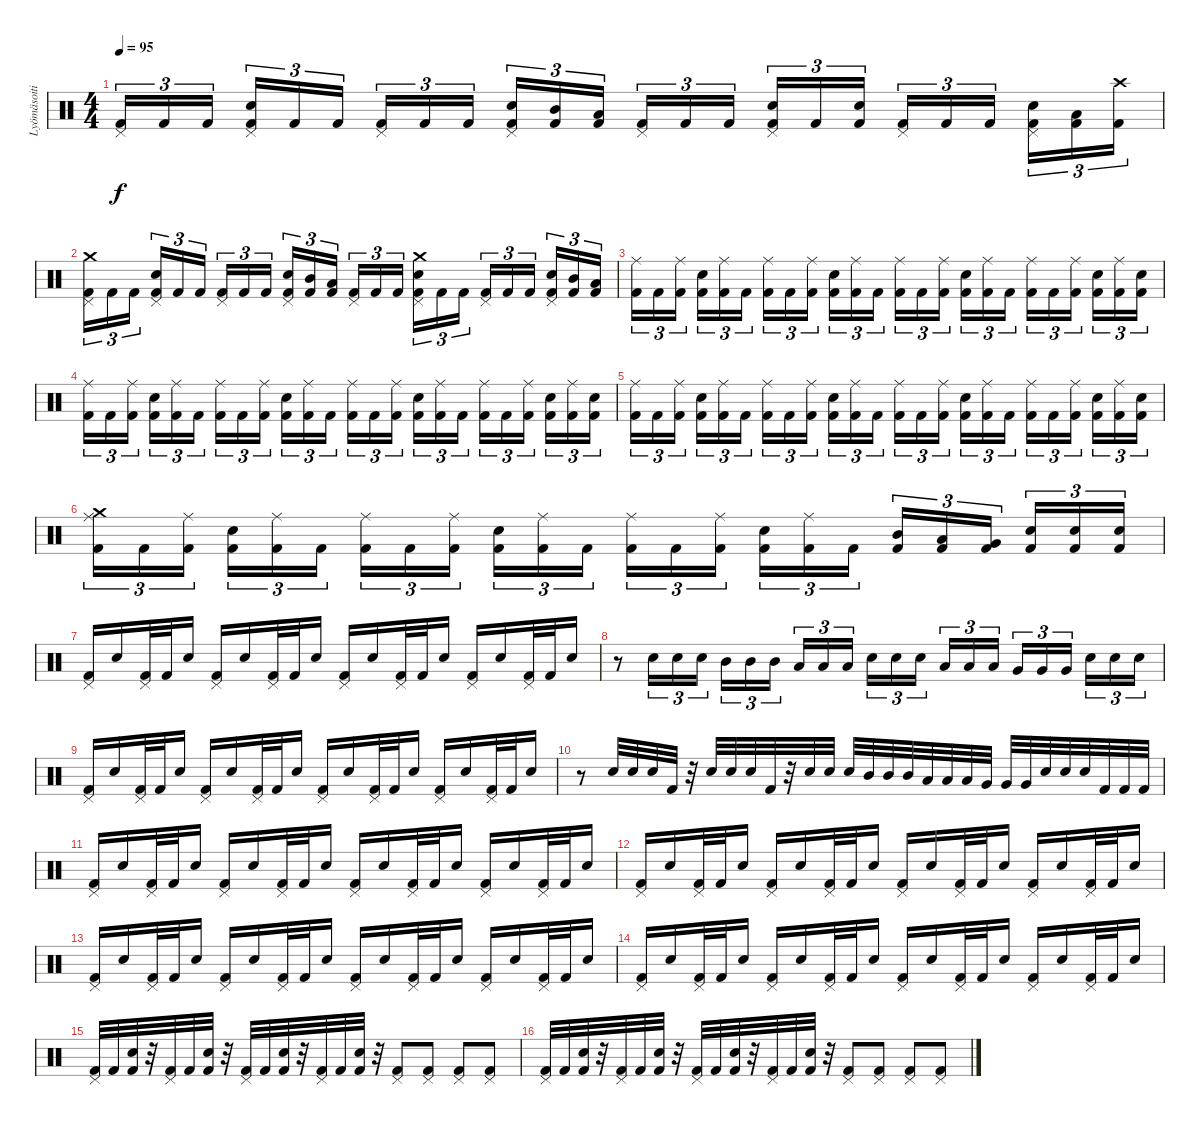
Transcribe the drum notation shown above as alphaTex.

\track ("Lyömäsoitin" "Lyömäsoiti") {instrument percussion}
\staff {score}
\articulation defaults
\ts (4 4)
\tempo 95
\clef neutral
\ks c
("Kick (hit) 2" "Pedal Hi-Hat (hit)").16{tu (3 2) dy f} "Kick (hit) 2".16{tu (3 2)} "Kick (hit) 2".16{tu (3 2)} ("Kick (hit) 2" "Electric Snare (hit)" "Pedal Hi-Hat (hit)").16{tu (3 2)} "Kick (hit) 2".16{tu (3 2)} "Kick (hit) 2".16{tu (3 2)} ("Kick (hit) 2" "Pedal Hi-Hat (hit)").16{tu (3 2)} "Kick (hit) 2".16{tu (3 2)} "Kick (hit) 2".16{tu (3 2)} ("Kick (hit) 2" "Electric Snare (hit)" "Pedal Hi-Hat (hit)").16{tu (3 2)} ("Kick (hit) 2" "Mid Tom (hit)").16{tu (3 2)} ("Kick (hit) 2" "Low Tom (hit)").16{tu (3 2)} ("Kick (hit) 2" "Pedal Hi-Hat (hit)").16{tu (3 2)} "Kick (hit) 2".16{tu (3 2)} "Kick (hit) 2".16{tu (3 2)} ("Kick (hit) 2" "Electric Snare (hit)" "Pedal Hi-Hat (hit)").16{tu (3 2)} "Kick (hit) 2".16{tu (3 2)} ("Kick (hit) 2" "Electric Snare (hit)").16{tu (3 2)} ("Kick (hit) 2" "Pedal Hi-Hat (hit)").16{tu (3 2)} "Kick (hit) 2".16{tu (3 2)} "Kick (hit) 2".16{tu (3 2)} ("Kick (hit) 2" "Electric Snare (hit)" "Pedal Hi-Hat (hit)").16{tu (3 2)} ("Kick (hit) 2" "Low Tom (hit)").16{tu (3 2)} ("Kick (hit) 2" "Crash high (hit)").16{tu (3 2)} |
("Kick (hit) 2" "Pedal Hi-Hat (hit)" "Crash medium (hit)").16{tu (3 2)} "Kick (hit) 2".16{tu (3 2)} "Kick (hit) 2".16{tu (3 2)} ("Kick (hit) 2" "Electric Snare (hit)" "Pedal Hi-Hat (hit)").16{tu (3 2)} "Kick (hit) 2".16{tu (3 2)} "Kick (hit) 2".16{tu (3 2)} ("Kick (hit) 2" "Pedal Hi-Hat (hit)").16{tu (3 2)} "Kick (hit) 2".16{tu (3 2)} "Kick (hit) 2".16{tu (3 2)} ("Kick (hit) 2" "Electric Snare (hit)" "Pedal Hi-Hat (hit)").16{tu (3 2)} ("Kick (hit) 2" "Mid Tom (hit)").16{tu (3 2)} ("Kick (hit) 2" "Low Tom (hit)").16{tu (3 2)} ("Kick (hit) 2" "Pedal Hi-Hat (hit)").16{tu (3 2)} "Kick (hit) 2".16{tu (3 2)} "Kick (hit) 2".16{tu (3 2)} ("Kick (hit) 2" "Electric Snare (hit)" "Pedal Hi-Hat (hit)" "Crash medium (hit)").16{tu (3 2)} "Kick (hit) 2".16{tu (3 2)} "Kick (hit) 2".16{tu (3 2)} ("Kick (hit) 2" "Pedal Hi-Hat (hit)").16{tu (3 2)} "Kick (hit) 2".16{tu (3 2)} "Kick (hit) 2".16{tu (3 2)} ("Kick (hit) 2" "Electric Snare (hit)" "Pedal Hi-Hat (hit)").16{tu (3 2)} ("Kick (hit) 2" "Mid Tom (hit)").16{tu (3 2)} ("Kick (hit) 2" "Low Tom (hit)").16{tu (3 2)} |
("Kick (hit) 2" "Ride (middle)").16{tu (3 2)} "Kick (hit) 2".16{tu (3 2)} ("Kick (hit) 2" "Ride (middle)").16{tu (3 2)} ("Kick (hit) 2" "Electric Snare (hit)").16{tu (3 2)} ("Kick (hit) 2" "Ride (middle)").16{tu (3 2)} "Kick (hit) 2".16{tu (3 2)} ("Kick (hit) 2" "Ride (middle)").16{tu (3 2)} "Kick (hit) 2".16{tu (3 2)} ("Kick (hit) 2" "Ride (middle)").16{tu (3 2)} ("Kick (hit) 2" "Electric Snare (hit)").16{tu (3 2)} ("Kick (hit) 2" "Ride (middle)").16{tu (3 2)} "Kick (hit) 2".16{tu (3 2)} ("Kick (hit) 2" "Ride (middle)").16{tu (3 2)} "Kick (hit) 2".16{tu (3 2)} ("Kick (hit) 2" "Ride (middle)").16{tu (3 2)} ("Kick (hit) 2" "Electric Snare (hit)").16{tu (3 2)} ("Kick (hit) 2" "Ride (middle)").16{tu (3 2)} "Kick (hit) 2".16{tu (3 2)} ("Kick (hit) 2" "Ride (middle)").16{tu (3 2)} "Kick (hit) 2".16{tu (3 2)} ("Kick (hit) 2" "Ride (middle)").16{tu (3 2)} ("Kick (hit) 2" "Electric Snare (hit)").16{tu (3 2)} ("Kick (hit) 2" "Ride (middle)").16{tu (3 2)} ("Kick (hit) 2" "Electric Snare (hit)").16{tu (3 2)} |
("Kick (hit) 2" "Ride (middle)").16{tu (3 2)} "Kick (hit) 2".16{tu (3 2)} ("Kick (hit) 2" "Ride (middle)").16{tu (3 2)} ("Kick (hit) 2" "Electric Snare (hit)").16{tu (3 2)} ("Kick (hit) 2" "Ride (middle)").16{tu (3 2)} "Kick (hit) 2".16{tu (3 2)} ("Kick (hit) 2" "Ride (middle)").16{tu (3 2)} "Kick (hit) 2".16{tu (3 2)} ("Kick (hit) 2" "Ride (middle)").16{tu (3 2)} ("Kick (hit) 2" "Electric Snare (hit)").16{tu (3 2)} ("Kick (hit) 2" "Ride (middle)").16{tu (3 2)} "Kick (hit) 2".16{tu (3 2)} ("Kick (hit) 2" "Ride (middle)").16{tu (3 2)} "Kick (hit) 2".16{tu (3 2)} ("Kick (hit) 2" "Ride (middle)").16{tu (3 2)} ("Kick (hit) 2" "Electric Snare (hit)").16{tu (3 2)} ("Kick (hit) 2" "Ride (middle)").16{tu (3 2)} "Kick (hit) 2".16{tu (3 2)} ("Kick (hit) 2" "Ride (middle)").16{tu (3 2)} "Kick (hit) 2".16{tu (3 2)} ("Kick (hit) 2" "Ride (middle)").16{tu (3 2)} ("Kick (hit) 2" "Electric Snare (hit)").16{tu (3 2)} ("Kick (hit) 2" "Ride (middle)").16{tu (3 2)} ("Kick (hit) 2" "Electric Snare (hit)").16{tu (3 2)} |
("Kick (hit) 2" "Ride (middle)").16{tu (3 2)} "Kick (hit) 2".16{tu (3 2)} ("Kick (hit) 2" "Ride (middle)").16{tu (3 2)} ("Kick (hit) 2" "Electric Snare (hit)").16{tu (3 2)} ("Kick (hit) 2" "Ride (middle)").16{tu (3 2)} "Kick (hit) 2".16{tu (3 2)} ("Kick (hit) 2" "Ride (middle)").16{tu (3 2)} "Kick (hit) 2".16{tu (3 2)} ("Kick (hit) 2" "Ride (middle)").16{tu (3 2)} ("Kick (hit) 2" "Electric Snare (hit)").16{tu (3 2)} ("Kick (hit) 2" "Ride (middle)").16{tu (3 2)} "Kick (hit) 2".16{tu (3 2)} ("Kick (hit) 2" "Ride (middle)").16{tu (3 2)} "Kick (hit) 2".16{tu (3 2)} ("Kick (hit) 2" "Ride (middle)").16{tu (3 2)} ("Kick (hit) 2" "Electric Snare (hit)").16{tu (3 2)} ("Kick (hit) 2" "Ride (middle)").16{tu (3 2)} "Kick (hit) 2".16{tu (3 2)} ("Kick (hit) 2" "Ride (middle)").16{tu (3 2)} "Kick (hit) 2".16{tu (3 2)} ("Kick (hit) 2" "Ride (middle)").16{tu (3 2)} ("Kick (hit) 2" "Electric Snare (hit)").16{tu (3 2)} ("Kick (hit) 2" "Ride (middle)").16{tu (3 2)} ("Kick (hit) 2" "Electric Snare (hit)").16{tu (3 2)} |
("Kick (hit) 2" "Ride (middle)" "Crash medium (hit)").16{tu (3 2)} "Kick (hit) 2".16{tu (3 2)} ("Kick (hit) 2" "Ride (middle)").16{tu (3 2)} ("Kick (hit) 2" "Electric Snare (hit)").16{tu (3 2)} ("Kick (hit) 2" "Ride (middle)").16{tu (3 2)} "Kick (hit) 2".16{tu (3 2)} ("Kick (hit) 2" "Ride (middle)").16{tu (3 2)} "Kick (hit) 2".16{tu (3 2)} ("Kick (hit) 2" "Ride (middle)").16{tu (3 2)} ("Kick (hit) 2" "Electric Snare (hit)").16{tu (3 2)} ("Kick (hit) 2" "Ride (middle)").16{tu (3 2)} "Kick (hit) 2".16{tu (3 2)} ("Kick (hit) 2" "Ride (middle)").16{tu (3 2)} "Kick (hit) 2".16{tu (3 2)} ("Kick (hit) 2" "Ride (middle)").16{tu (3 2)} ("Kick (hit) 2" "Electric Snare (hit)").16{tu (3 2)} ("Kick (hit) 2" "Ride (middle)").16{tu (3 2)} "Kick (hit) 2".16{tu (3 2)} ("Kick (hit) 2" "Mid Tom (hit)").16{tu (3 2)} ("Kick (hit) 2" "Low Tom (hit)").16{tu (3 2)} ("Kick (hit) 2" "Very Low Tom (hit)").16{tu (3 2)} ("Kick (hit) 2" "Electric Snare (hit)").16{tu (3 2)} ("Kick (hit) 2" "Electric Snare (hit)").16{tu (3 2)} ("Kick (hit) 2" "Electric Snare (hit)").16{tu (3 2)} |
("Kick (hit) 2" "Pedal Hi-Hat (hit)").16 "Electric Snare (hit)".16 ("Kick (hit) 2" "Pedal Hi-Hat (hit)").32 "Kick (hit) 2".32 "Electric Snare (hit)".16 ("Kick (hit) 2" "Pedal Hi-Hat (hit)").16 "Electric Snare (hit)".16 ("Kick (hit) 2" "Pedal Hi-Hat (hit)").32 "Kick (hit) 2".32 "Electric Snare (hit)".16 ("Kick (hit) 2" "Pedal Hi-Hat (hit)").16 "Electric Snare (hit)".16 ("Kick (hit) 2" "Pedal Hi-Hat (hit)").32 "Kick (hit) 2".32 "Electric Snare (hit)".16 ("Kick (hit) 2" "Pedal Hi-Hat (hit)").16 "Electric Snare (hit)".16 ("Kick (hit) 2" "Pedal Hi-Hat (hit)").32 "Kick (hit) 2".32 "Electric Snare (hit)".16 |
r.8 "Electric Snare (hit)".16{tu (3 2)} "Electric Snare (hit)".16{tu (3 2)} "Electric Snare (hit)".16{tu (3 2)} "Mid Tom (hit)".16{tu (3 2)} "Mid Tom (hit)".16{tu (3 2)} "Mid Tom (hit)".16{tu (3 2)} "Low Tom (hit)".16{tu (3 2)} "Low Tom (hit)".16{tu (3 2)} "Low Tom (hit)".16{tu (3 2)} "Electric Snare (hit)".16{tu (3 2)} "Electric Snare (hit)".16{tu (3 2)} "Electric Snare (hit)".16{tu (3 2)} "Low Tom (hit)".16{tu (3 2)} "Low Tom (hit)".16{tu (3 2)} "Low Tom (hit)".16{tu (3 2)} "Very Low Tom (hit)".16{tu (3 2)} "Very Low Tom (hit)".16{tu (3 2)} "Very Low Tom (hit)".16{tu (3 2)} "Electric Snare (hit)".16{tu (3 2)} "Electric Snare (hit)".16{tu (3 2)} "Electric Snare (hit)".16{tu (3 2)} |
("Kick (hit) 2" "Pedal Hi-Hat (hit)").16 "Electric Snare (hit)".16 ("Kick (hit) 2" "Pedal Hi-Hat (hit)").32 "Kick (hit) 2".32 "Electric Snare (hit)".16 ("Kick (hit) 2" "Pedal Hi-Hat (hit)").16 "Electric Snare (hit)".16 ("Kick (hit) 2" "Pedal Hi-Hat (hit)").32 "Kick (hit) 2".32 "Electric Snare (hit)".16 ("Kick (hit) 2" "Pedal Hi-Hat (hit)").16 "Electric Snare (hit)".16 ("Kick (hit) 2" "Pedal Hi-Hat (hit)").32 "Kick (hit) 2".32 "Electric Snare (hit)".16 ("Kick (hit) 2" "Pedal Hi-Hat (hit)").16 "Electric Snare (hit)".16 ("Kick (hit) 2" "Pedal Hi-Hat (hit)").32 "Kick (hit) 2".32 "Electric Snare (hit)".16 |
r.8 "Electric Snare (hit)".32 "Electric Snare (hit)".32 "Electric Snare (hit)".32 "Kick (hit) 2".32 r.32 "Electric Snare (hit)".32 "Electric Snare (hit)".32 "Electric Snare (hit)".32 "Kick (hit) 2".32 r.32 "Electric Snare (hit)".32 "Electric Snare (hit)".32 "Electric Snare (hit)".32 "Mid Tom (hit)".32 "Mid Tom (hit)".32 "Mid Tom (hit)".32 "Low Tom (hit)".32 "Low Tom (hit)".32 "Low Tom (hit)".32 "Very Low Tom (hit)".32 "Very Low Tom (hit)".32 "Very Low Tom (hit)".32 "Electric Snare (hit)".32 "Electric Snare (hit)".32 "Electric Snare (hit)".32 "Kick (hit) 2".32 "Kick (hit) 2".32 "Kick (hit) 2".32 |
("Kick (hit) 2" "Pedal Hi-Hat (hit)").16 "Electric Snare (hit)".16 ("Kick (hit) 2" "Pedal Hi-Hat (hit)").32 "Kick (hit) 2".32 "Electric Snare (hit)".16 ("Kick (hit) 2" "Pedal Hi-Hat (hit)").16 "Electric Snare (hit)".16 ("Kick (hit) 2" "Pedal Hi-Hat (hit)").32 "Kick (hit) 2".32 "Electric Snare (hit)".16 ("Kick (hit) 2" "Pedal Hi-Hat (hit)").16 "Electric Snare (hit)".16 ("Kick (hit) 2" "Pedal Hi-Hat (hit)").32 "Kick (hit) 2".32 "Electric Snare (hit)".16 ("Kick (hit) 2" "Pedal Hi-Hat (hit)").16 "Electric Snare (hit)".16 ("Kick (hit) 2" "Pedal Hi-Hat (hit)").32 "Kick (hit) 2".32 "Electric Snare (hit)".16 |
("Kick (hit) 2" "Pedal Hi-Hat (hit)").16 "Electric Snare (hit)".16 ("Kick (hit) 2" "Pedal Hi-Hat (hit)").32 "Kick (hit) 2".32 "Electric Snare (hit)".16 ("Kick (hit) 2" "Pedal Hi-Hat (hit)").16 "Electric Snare (hit)".16 ("Kick (hit) 2" "Pedal Hi-Hat (hit)").32 "Kick (hit) 2".32 "Electric Snare (hit)".16 ("Kick (hit) 2" "Pedal Hi-Hat (hit)").16 "Electric Snare (hit)".16 ("Kick (hit) 2" "Pedal Hi-Hat (hit)").32 "Kick (hit) 2".32 "Electric Snare (hit)".16 ("Kick (hit) 2" "Pedal Hi-Hat (hit)").16 "Electric Snare (hit)".16 ("Kick (hit) 2" "Pedal Hi-Hat (hit)").32 "Kick (hit) 2".32 "Electric Snare (hit)".16 |
("Kick (hit) 2" "Pedal Hi-Hat (hit)").16 "Electric Snare (hit)".16 ("Kick (hit) 2" "Pedal Hi-Hat (hit)").32 "Kick (hit) 2".32 "Electric Snare (hit)".16 ("Kick (hit) 2" "Pedal Hi-Hat (hit)").16 "Electric Snare (hit)".16 ("Kick (hit) 2" "Pedal Hi-Hat (hit)").32 "Kick (hit) 2".32 "Electric Snare (hit)".16 ("Kick (hit) 2" "Pedal Hi-Hat (hit)").16 "Electric Snare (hit)".16 ("Kick (hit) 2" "Pedal Hi-Hat (hit)").32 "Kick (hit) 2".32 "Electric Snare (hit)".16 ("Kick (hit) 2" "Pedal Hi-Hat (hit)").16 "Electric Snare (hit)".16 ("Kick (hit) 2" "Pedal Hi-Hat (hit)").32 "Kick (hit) 2".32 "Electric Snare (hit)".16 |
("Kick (hit) 2" "Pedal Hi-Hat (hit)").16 "Electric Snare (hit)".16 ("Kick (hit) 2" "Pedal Hi-Hat (hit)").32 "Kick (hit) 2".32 "Electric Snare (hit)".16 ("Kick (hit) 2" "Pedal Hi-Hat (hit)").16 "Electric Snare (hit)".16 ("Kick (hit) 2" "Pedal Hi-Hat (hit)").32 "Kick (hit) 2".32 "Electric Snare (hit)".16 ("Kick (hit) 2" "Pedal Hi-Hat (hit)").16 "Electric Snare (hit)".16 ("Kick (hit) 2" "Pedal Hi-Hat (hit)").32 "Kick (hit) 2".32 "Electric Snare (hit)".16 ("Kick (hit) 2" "Pedal Hi-Hat (hit)").16 "Electric Snare (hit)".16 ("Kick (hit) 2" "Pedal Hi-Hat (hit)").32 "Kick (hit) 2".32 "Electric Snare (hit)".16 |
("Kick (hit) 2" "Pedal Hi-Hat (hit)").32 "Kick (hit) 2".32 ("Kick (hit) 2" "Electric Snare (hit)").32 r.32 ("Kick (hit) 2" "Pedal Hi-Hat (hit)").32 "Kick (hit) 2".32 ("Kick (hit) 2" "Electric Snare (hit)").32 r.32 ("Kick (hit) 2" "Pedal Hi-Hat (hit)").32 "Kick (hit) 2".32 ("Kick (hit) 2" "Electric Snare (hit)").32 r.32 ("Kick (hit) 2" "Pedal Hi-Hat (hit)").32 "Kick (hit) 2".32 ("Kick (hit) 2" "Electric Snare (hit)").32 r.32 ("Kick (hit) 2" "Pedal Hi-Hat (hit)").8 ("Kick (hit) 2" "Pedal Hi-Hat (hit)").8 ("Kick (hit) 2" "Pedal Hi-Hat (hit)").8 ("Kick (hit) 2" "Pedal Hi-Hat (hit)").8 |
("Kick (hit) 2" "Pedal Hi-Hat (hit)").32 "Kick (hit) 2".32 ("Kick (hit) 2" "Electric Snare (hit)").32 r.32 ("Kick (hit) 2" "Pedal Hi-Hat (hit)").32 "Kick (hit) 2".32 ("Kick (hit) 2" "Electric Snare (hit)").32 r.32 ("Kick (hit) 2" "Pedal Hi-Hat (hit)").32 "Kick (hit) 2".32 ("Kick (hit) 2" "Electric Snare (hit)").32 r.32 ("Kick (hit) 2" "Pedal Hi-Hat (hit)").32 "Kick (hit) 2".32 ("Kick (hit) 2" "Electric Snare (hit)").32 r.32 ("Kick (hit) 2" "Pedal Hi-Hat (hit)").8 ("Kick (hit) 2" "Pedal Hi-Hat (hit)").8 ("Kick (hit) 2" "Pedal Hi-Hat (hit)").8 ("Kick (hit) 2" "Pedal Hi-Hat (hit)").8
